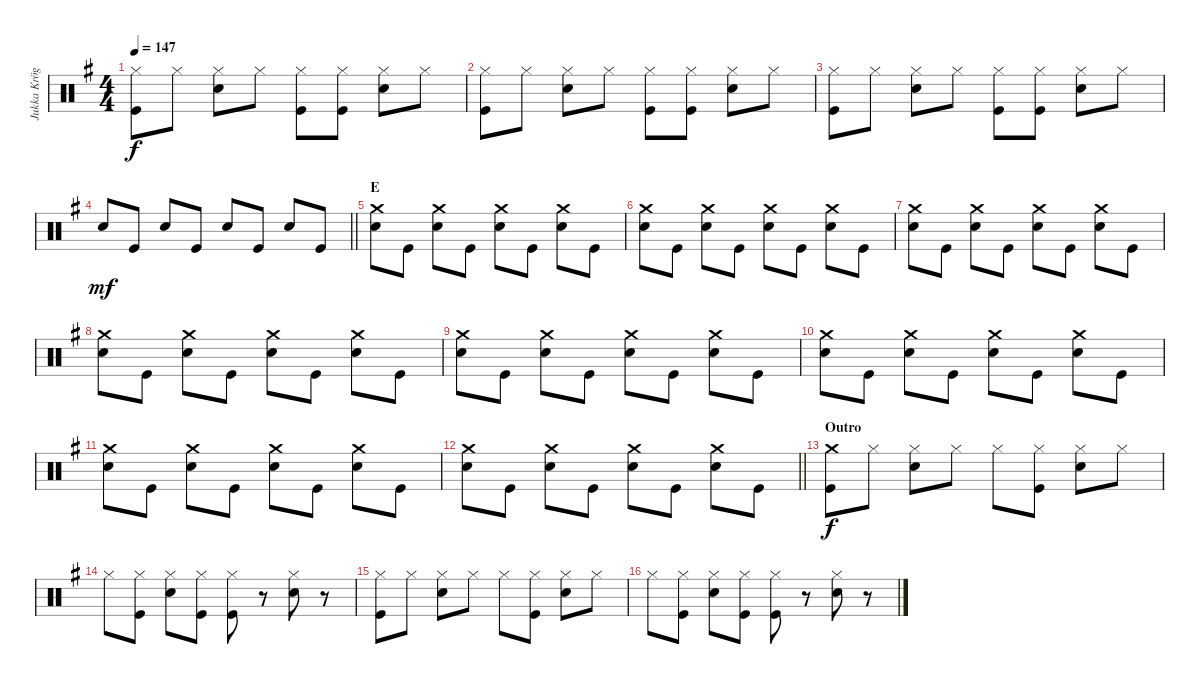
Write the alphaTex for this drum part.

\track ("Jukka Kröger" "Jukka Krög") {instrument percussion}
\staff {score}
\articulation defaults
\ts (4 4)
\tempo 147
\clef neutral
\ks eminor
("Hi-Hat (closed)" "Kick (hit)").8{dy f} "Hi-Hat (closed)".8 ("Hi-Hat (closed)" "Snare (hit) 2").8 "Hi-Hat (closed)".8 ("Hi-Hat (closed)" "Kick (hit)").8 ("Hi-Hat (closed)" "Kick (hit)").8 ("Hi-Hat (closed)" "Snare (hit) 2").8 "Hi-Hat (closed)".8 |
("Hi-Hat (closed)" "Kick (hit)").8 "Hi-Hat (closed)".8 ("Hi-Hat (closed)" "Snare (hit) 2").8 "Hi-Hat (closed)".8 ("Hi-Hat (closed)" "Kick (hit)").8 ("Hi-Hat (closed)" "Kick (hit)").8 ("Hi-Hat (closed)" "Snare (hit) 2").8 "Hi-Hat (closed)".8 |
("Hi-Hat (closed)" "Kick (hit)").8 "Hi-Hat (closed)".8 ("Hi-Hat (closed)" "Snare (hit) 2").8 "Hi-Hat (closed)".8 ("Hi-Hat (closed)" "Kick (hit)").8 ("Hi-Hat (closed)" "Kick (hit)").8 ("Hi-Hat (closed)" "Snare (hit) 2").8 "Hi-Hat (closed)".8 |
\barLineRight lightlight "Snare (hit) 2".8{dy mf} "Kick (hit)".8 "Snare (hit) 2".8 "Kick (hit)".8 "Snare (hit) 2".8 "Kick (hit)".8 "Snare (hit) 2".8 "Kick (hit)".8
|
\section ("" "E")
("Crash medium (hit)" "Snare (hit) 2").8 "Kick (hit)".8 ("Crash medium (hit)" "Snare (hit) 2").8 "Kick (hit)".8 ("Crash medium (hit)" "Snare (hit) 2").8 "Kick (hit)".8 ("Crash medium (hit)" "Snare (hit) 2").8 "Kick (hit)".8 |
("Crash medium (hit)" "Snare (hit) 2").8 "Kick (hit)".8 ("Crash medium (hit)" "Snare (hit) 2").8 "Kick (hit)".8 ("Crash medium (hit)" "Snare (hit) 2").8 "Kick (hit)".8 ("Crash medium (hit)" "Snare (hit) 2").8 "Kick (hit)".8 |
("Crash medium (hit)" "Snare (hit) 2").8 "Kick (hit)".8 ("Crash medium (hit)" "Snare (hit) 2").8 "Kick (hit)".8 ("Crash medium (hit)" "Snare (hit) 2").8 "Kick (hit)".8 ("Crash medium (hit)" "Snare (hit) 2").8 "Kick (hit)".8 |
("Crash medium (hit)" "Snare (hit) 2").8 "Kick (hit)".8 ("Crash medium (hit)" "Snare (hit) 2").8 "Kick (hit)".8 ("Crash medium (hit)" "Snare (hit) 2").8 "Kick (hit)".8 ("Crash medium (hit)" "Snare (hit) 2").8 "Kick (hit)".8 |
("Crash medium (hit)" "Snare (hit) 2").8 "Kick (hit)".8 ("Crash medium (hit)" "Snare (hit) 2").8 "Kick (hit)".8 ("Crash medium (hit)" "Snare (hit) 2").8 "Kick (hit)".8 ("Crash medium (hit)" "Snare (hit) 2").8 "Kick (hit)".8 |
("Crash medium (hit)" "Snare (hit) 2").8 "Kick (hit)".8 ("Crash medium (hit)" "Snare (hit) 2").8 "Kick (hit)".8 ("Crash medium (hit)" "Snare (hit) 2").8 "Kick (hit)".8 ("Crash medium (hit)" "Snare (hit) 2").8 "Kick (hit)".8 |
("Crash medium (hit)" "Snare (hit) 2").8 "Kick (hit)".8 ("Crash medium (hit)" "Snare (hit) 2").8 "Kick (hit)".8 ("Crash medium (hit)" "Snare (hit) 2").8 "Kick (hit)".8 ("Crash medium (hit)" "Snare (hit) 2").8 "Kick (hit)".8 |
\barLineRight lightlight
("Crash medium (hit)" "Snare (hit) 2").8 "Kick (hit)".8 ("Crash medium (hit)" "Snare (hit) 2").8 "Kick (hit)".8 ("Crash medium (hit)" "Snare (hit) 2").8 "Kick (hit)".8 ("Crash medium (hit)" "Snare (hit) 2").8 "Kick (hit)".8 |
\section ("" "Outro")
("Crash medium (hit)" "Kick (hit)").8{dy f} "Hi-Hat (closed)".8 ("Hi-Hat (closed)" "Snare (hit) 2").8 "Hi-Hat (closed)".8 "Hi-Hat (closed)".8 ("Hi-Hat (closed)" "Kick (hit)").8 ("Hi-Hat (closed)" "Snare (hit) 2").8 "Hi-Hat (closed)".8 |
"Hi-Hat (closed)".8 ("Hi-Hat (closed)" "Kick (hit)").8 ("Hi-Hat (closed)" "Snare (hit) 2").8 ("Hi-Hat (closed)" "Kick (hit)").8 ("Hi-Hat (closed)" "Kick (hit)").8 r.8 ("Hi-Hat (closed)" "Snare (hit) 2").8 r.8 |
("Hi-Hat (closed)" "Kick (hit)").8 "Hi-Hat (closed)".8 ("Hi-Hat (closed)" "Snare (hit) 2").8 "Hi-Hat (closed)".8 "Hi-Hat (closed)".8 ("Hi-Hat (closed)" "Kick (hit)").8 ("Hi-Hat (closed)" "Snare (hit) 2").8 "Hi-Hat (closed)".8 |
"Hi-Hat (closed)".8 ("Hi-Hat (closed)" "Kick (hit)").8 ("Hi-Hat (closed)" "Snare (hit) 2").8 ("Hi-Hat (closed)" "Kick (hit)").8 ("Hi-Hat (closed)" "Kick (hit)").8 r.8 ("Hi-Hat (closed)" "Snare (hit) 2").8 r.8
